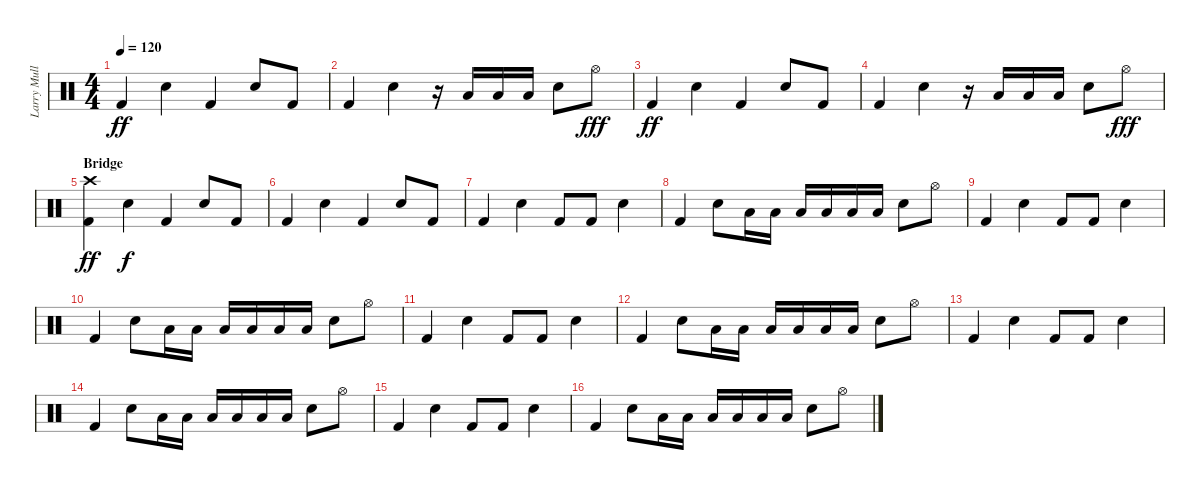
\track ("Larry Mullen Jr" "Larry Mull") {instrument percussion}
\staff {score}
\articulation defaults
\ts (4 4)
\tempo 120
\clef neutral
\ks c "Kick (hit) 2".4{dy ff} "Snare (hit) 2".4 "Kick (hit) 2".4 "Snare (hit) 2".8 "Kick (hit) 2".8
|
"Kick (hit) 2".4 "Snare (hit) 2".4 r.16 "Low Floor Tom (hit)".16 "Low Floor Tom (hit)".16 "Low Floor Tom (hit)".16 "Snare (hit) 2".8 "Hi-Hat (open)".8{dy fff} |
"Kick (hit) 2".4{dy ff} "Snare (hit) 2".4 "Kick (hit) 2".4 "Snare (hit) 2".8 "Kick (hit) 2".8 |
"Kick (hit) 2".4 "Snare (hit) 2".4 r.16 "Low Floor Tom (hit)".16 "Low Floor Tom (hit)".16 "Low Floor Tom (hit)".16 "Snare (hit) 2".8 "Hi-Hat (open)".8{dy fff} |
\section ("" "Bridge")
("Kick (hit) 2" "Crash high (hit)").4{dy ff} "Snare (hit) 2".4{dy f} "Kick (hit) 2".4 "Snare (hit) 2".8 "Kick (hit) 2".8 |
"Kick (hit) 2".4 "Snare (hit) 2".4 "Kick (hit) 2".4 "Snare (hit) 2".8 "Kick (hit) 2".8 |
"Kick (hit) 2".4 "Snare (hit) 2".4 "Kick (hit) 2".8 "Kick (hit) 2".8 "Snare (hit) 2".4 |
"Kick (hit) 2".4 "Snare (hit) 2".8 "Low Floor Tom (hit)".16 "Low Floor Tom (hit)".16 "Low Floor Tom (hit)".16 "Low Floor Tom (hit)".16 "Low Floor Tom (hit)".16 "Low Floor Tom (hit)".16 "Snare (hit) 2".8 "Hi-Hat (open)".8 |
"Kick (hit) 2".4 "Snare (hit) 2".4 "Kick (hit) 2".8 "Kick (hit) 2".8 "Snare (hit) 2".4 |
"Kick (hit) 2".4 "Snare (hit) 2".8 "Low Floor Tom (hit)".16 "Low Floor Tom (hit)".16 "Low Floor Tom (hit)".16 "Low Floor Tom (hit)".16 "Low Floor Tom (hit)".16 "Low Floor Tom (hit)".16 "Snare (hit) 2".8 "Hi-Hat (open)".8 |
"Kick (hit) 2".4 "Snare (hit) 2".4 "Kick (hit) 2".8 "Kick (hit) 2".8 "Snare (hit) 2".4 |
"Kick (hit) 2".4 "Snare (hit) 2".8 "Low Floor Tom (hit)".16 "Low Floor Tom (hit)".16 "Low Floor Tom (hit)".16 "Low Floor Tom (hit)".16 "Low Floor Tom (hit)".16 "Low Floor Tom (hit)".16 "Snare (hit) 2".8 "Hi-Hat (open)".8 |
"Kick (hit) 2".4 "Snare (hit) 2".4 "Kick (hit) 2".8 "Kick (hit) 2".8 "Snare (hit) 2".4 |
"Kick (hit) 2".4 "Snare (hit) 2".8 "Low Floor Tom (hit)".16 "Low Floor Tom (hit)".16 "Low Floor Tom (hit)".16 "Low Floor Tom (hit)".16 "Low Floor Tom (hit)".16 "Low Floor Tom (hit)".16 "Snare (hit) 2".8 "Hi-Hat (open)".8 |
"Kick (hit) 2".4 "Snare (hit) 2".4 "Kick (hit) 2".8 "Kick (hit) 2".8 "Snare (hit) 2".4 |
"Kick (hit) 2".4 "Snare (hit) 2".8 "Low Floor Tom (hit)".16 "Low Floor Tom (hit)".16 "Low Floor Tom (hit)".16 "Low Floor Tom (hit)".16 "Low Floor Tom (hit)".16 "Low Floor Tom (hit)".16 "Snare (hit) 2".8 "Hi-Hat (open)".8
